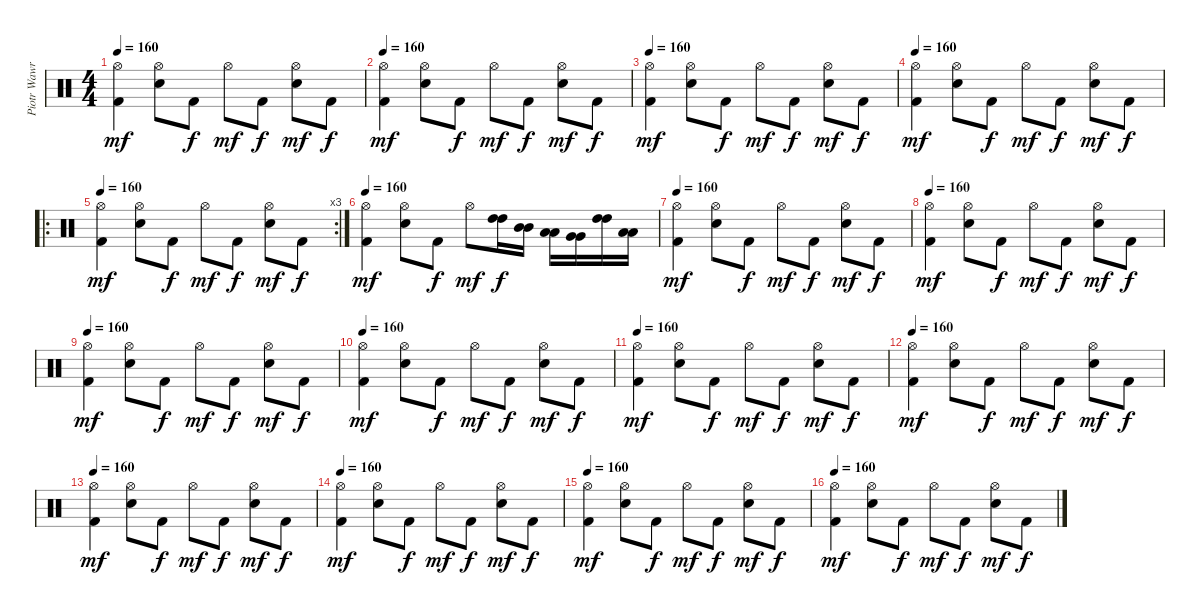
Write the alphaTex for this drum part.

\track ("Piotr Wawrzeniunk (drums)" "Piotr Wawr") {instrument percussion}
\staff {score}
\articulation defaults
\ts (4 4)
\tempo 160
\clef neutral
\ks c
("Kick (hit) 2" "Hi-Hat (open)").4{dy mf} ("Electric Snare (hit)" "Hi-Hat (open)").8 "Kick (hit) 2".8{dy f} "Hi-Hat (open)".8{dy mf} "Kick (hit) 2".8{dy f} ("Electric Snare (hit)" "Hi-Hat (open)").8{dy mf} "Kick (hit) 2".8{dy f} |
\tempo 160
("Kick (hit) 2" "Hi-Hat (open)").4{dy mf} ("Electric Snare (hit)" "Hi-Hat (open)").8 "Kick (hit) 2".8{dy f} "Hi-Hat (open)".8{dy mf} "Kick (hit) 2".8{dy f} ("Electric Snare (hit)" "Hi-Hat (open)").8{dy mf} "Kick (hit) 2".8{dy f} |
\tempo 160
("Kick (hit) 2" "Hi-Hat (open)").4{dy mf} ("Electric Snare (hit)" "Hi-Hat (open)").8 "Kick (hit) 2".8{dy f} "Hi-Hat (open)".8{dy mf} "Kick (hit) 2".8{dy f} ("Electric Snare (hit)" "Hi-Hat (open)").8{dy mf} "Kick (hit) 2".8{dy f} |
\tempo 160
("Kick (hit) 2" "Hi-Hat (open)").4{dy mf} ("Electric Snare (hit)" "Hi-Hat (open)").8 "Kick (hit) 2".8{dy f} "Hi-Hat (open)".8{dy mf} "Kick (hit) 2".8{dy f} ("Electric Snare (hit)" "Hi-Hat (open)").8{dy mf} "Kick (hit) 2".8{dy f} |
\ro
\rc 3
\tempo 160
("Kick (hit) 2" "Hi-Hat (open)").4{dy mf} ("Electric Snare (hit)" "Hi-Hat (open)").8 "Kick (hit) 2".8{dy f} "Hi-Hat (open)".8{dy mf} "Kick (hit) 2".8{dy f} ("Electric Snare (hit)" "Hi-Hat (open)").8{dy mf} "Kick (hit) 2".8{dy f} |
\tempo 160
("Kick (hit) 2" "Hi-Hat (open)").4{dy mf} ("Electric Snare (hit)" "Hi-Hat (open)").8 "Kick (hit) 2".8{dy f} "Hi-Hat (open)".8{dy mf} ("High Tom (hit)" "High Tom (hit)").16{dy f} ("Mid Tom (hit)" "Mid Tom (hit)").16 ("Low Tom (hit)" "Low Tom (hit)").16 ("Very Low Tom (hit)" "Very Low Tom (hit)").16 ("High Tom (hit)" "High Tom (hit)").16 ("Low Tom (hit)" "Low Tom (hit)").16 |
\tempo 160
("Kick (hit) 2" "Hi-Hat (open)").4{dy mf} ("Electric Snare (hit)" "Hi-Hat (open)").8 "Kick (hit) 2".8{dy f} "Hi-Hat (open)".8{dy mf} "Kick (hit) 2".8{dy f} ("Electric Snare (hit)" "Hi-Hat (open)").8{dy mf} "Kick (hit) 2".8{dy f} |
\tempo 160
("Kick (hit) 2" "Hi-Hat (open)").4{dy mf} ("Electric Snare (hit)" "Hi-Hat (open)").8 "Kick (hit) 2".8{dy f} "Hi-Hat (open)".8{dy mf} "Kick (hit) 2".8{dy f} ("Electric Snare (hit)" "Hi-Hat (open)").8{dy mf} "Kick (hit) 2".8{dy f} |
\tempo 160
("Kick (hit) 2" "Hi-Hat (open)").4{dy mf} ("Electric Snare (hit)" "Hi-Hat (open)").8 "Kick (hit) 2".8{dy f} "Hi-Hat (open)".8{dy mf} "Kick (hit) 2".8{dy f} ("Electric Snare (hit)" "Hi-Hat (open)").8{dy mf} "Kick (hit) 2".8{dy f} |
\tempo 160
("Kick (hit) 2" "Hi-Hat (open)").4{dy mf} ("Electric Snare (hit)" "Hi-Hat (open)").8 "Kick (hit) 2".8{dy f} "Hi-Hat (open)".8{dy mf} "Kick (hit) 2".8{dy f} ("Electric Snare (hit)" "Hi-Hat (open)").8{dy mf} "Kick (hit) 2".8{dy f} |
\tempo 160
("Kick (hit) 2" "Hi-Hat (open)").4{dy mf} ("Electric Snare (hit)" "Hi-Hat (open)").8 "Kick (hit) 2".8{dy f} "Hi-Hat (open)".8{dy mf} "Kick (hit) 2".8{dy f} ("Electric Snare (hit)" "Hi-Hat (open)").8{dy mf} "Kick (hit) 2".8{dy f} |
\tempo 160
("Kick (hit) 2" "Hi-Hat (open)").4{dy mf} ("Electric Snare (hit)" "Hi-Hat (open)").8 "Kick (hit) 2".8{dy f} "Hi-Hat (open)".8{dy mf} "Kick (hit) 2".8{dy f} ("Electric Snare (hit)" "Hi-Hat (open)").8{dy mf} "Kick (hit) 2".8{dy f} |
\tempo 160
("Kick (hit) 2" "Hi-Hat (open)").4{dy mf} ("Electric Snare (hit)" "Hi-Hat (open)").8 "Kick (hit) 2".8{dy f} "Hi-Hat (open)".8{dy mf} "Kick (hit) 2".8{dy f} ("Electric Snare (hit)" "Hi-Hat (open)").8{dy mf} "Kick (hit) 2".8{dy f} |
\tempo 160
("Kick (hit) 2" "Hi-Hat (open)").4{dy mf} ("Electric Snare (hit)" "Hi-Hat (open)").8 "Kick (hit) 2".8{dy f} "Hi-Hat (open)".8{dy mf} "Kick (hit) 2".8{dy f} ("Electric Snare (hit)" "Hi-Hat (open)").8{dy mf} "Kick (hit) 2".8{dy f} |
\tempo 160
("Kick (hit) 2" "Hi-Hat (open)").4{dy mf} ("Electric Snare (hit)" "Hi-Hat (open)").8 "Kick (hit) 2".8{dy f} "Hi-Hat (open)".8{dy mf} "Kick (hit) 2".8{dy f} ("Electric Snare (hit)" "Hi-Hat (open)").8{dy mf} "Kick (hit) 2".8{dy f} |
\tempo 160
("Kick (hit) 2" "Hi-Hat (open)").4{dy mf} ("Electric Snare (hit)" "Hi-Hat (open)").8 "Kick (hit) 2".8{dy f} "Hi-Hat (open)".8{dy mf} "Kick (hit) 2".8{dy f} ("Electric Snare (hit)" "Hi-Hat (open)").8{dy mf} "Kick (hit) 2".8{dy f}
